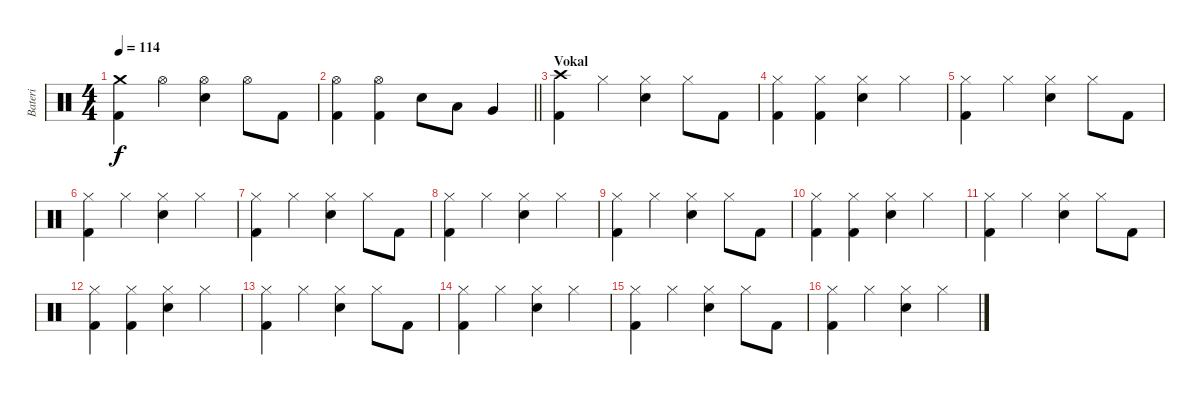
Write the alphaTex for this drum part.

\track ("Bateri" "Bateri") {instrument percussion}
\staff {score}
\articulation defaults
\ts (4 4)
\tempo 114
\clef neutral
\ks c
("Crash medium (hit)" "Kick (hit) 2").4{dy f} "Hi-Hat (open)".4 ("Hi-Hat (open)" "Snare (hit) 2").4 "Hi-Hat (open)".8 "Kick (hit) 2".8 |
\barLineRight lightlight
("Hi-Hat (open)" "Kick (hit) 2").4 ("Hi-Hat (open)" "Kick (hit) 2").4 "Snare (hit) 2".8 "Low Tom (hit)".8 "Very Low Tom (hit)".4 |
\section ("" "Vokal")
("Crash high (hit)" "Kick (hit) 2").4 "Hi-Hat (closed)".4 ("Hi-Hat (closed)" "Snare (hit) 2").4 "Hi-Hat (closed)".8 "Kick (hit) 2".8 |
("Hi-Hat (closed)" "Kick (hit) 2").4 ("Hi-Hat (closed)" "Kick (hit) 2").4 ("Hi-Hat (closed)" "Snare (hit) 2").4 "Hi-Hat (closed)".4 |
("Hi-Hat (closed)" "Kick (hit) 2").4 "Hi-Hat (closed)".4 ("Hi-Hat (closed)" "Snare (hit) 2").4 "Hi-Hat (closed)".8 "Kick (hit) 2".8 |
("Hi-Hat (closed)" "Kick (hit) 2").4 "Hi-Hat (closed)".4 ("Hi-Hat (closed)" "Snare (hit) 2").4 "Hi-Hat (closed)".4 |
("Hi-Hat (closed)" "Kick (hit) 2").4 "Hi-Hat (closed)".4 ("Hi-Hat (closed)" "Snare (hit) 2").4 "Hi-Hat (closed)".8 "Kick (hit) 2".8 |
("Hi-Hat (closed)" "Kick (hit) 2").4 "Hi-Hat (closed)".4 ("Hi-Hat (closed)" "Snare (hit) 2").4 "Hi-Hat (closed)".4 |
("Hi-Hat (closed)" "Kick (hit) 2").4 "Hi-Hat (closed)".4 ("Hi-Hat (closed)" "Snare (hit) 2").4 "Hi-Hat (closed)".8 "Kick (hit) 2".8 |
("Hi-Hat (closed)" "Kick (hit) 2").4 ("Hi-Hat (closed)" "Kick (hit) 2").4 ("Hi-Hat (closed)" "Snare (hit) 2").4 "Hi-Hat (closed)".4 |
("Hi-Hat (closed)" "Kick (hit) 2").4 "Hi-Hat (closed)".4 ("Hi-Hat (closed)" "Snare (hit) 2").4 "Hi-Hat (closed)".8 "Kick (hit) 2".8 |
("Hi-Hat (closed)" "Kick (hit) 2").4 ("Hi-Hat (closed)" "Kick (hit) 2").4 ("Hi-Hat (closed)" "Snare (hit) 2").4 "Hi-Hat (closed)".4 |
("Hi-Hat (closed)" "Kick (hit) 2").4 "Hi-Hat (closed)".4 ("Hi-Hat (closed)" "Snare (hit) 2").4 "Hi-Hat (closed)".8 "Kick (hit) 2".8 |
("Hi-Hat (closed)" "Kick (hit) 2").4 "Hi-Hat (closed)".4 ("Hi-Hat (closed)" "Snare (hit) 2").4 "Hi-Hat (closed)".4 |
("Hi-Hat (closed)" "Kick (hit) 2").4 "Hi-Hat (closed)".4 ("Hi-Hat (closed)" "Snare (hit) 2").4 "Hi-Hat (closed)".8 "Kick (hit) 2".8 |
("Hi-Hat (closed)" "Kick (hit) 2").4 "Hi-Hat (closed)".4 ("Hi-Hat (closed)" "Snare (hit) 2").4 "Hi-Hat (closed)".4
